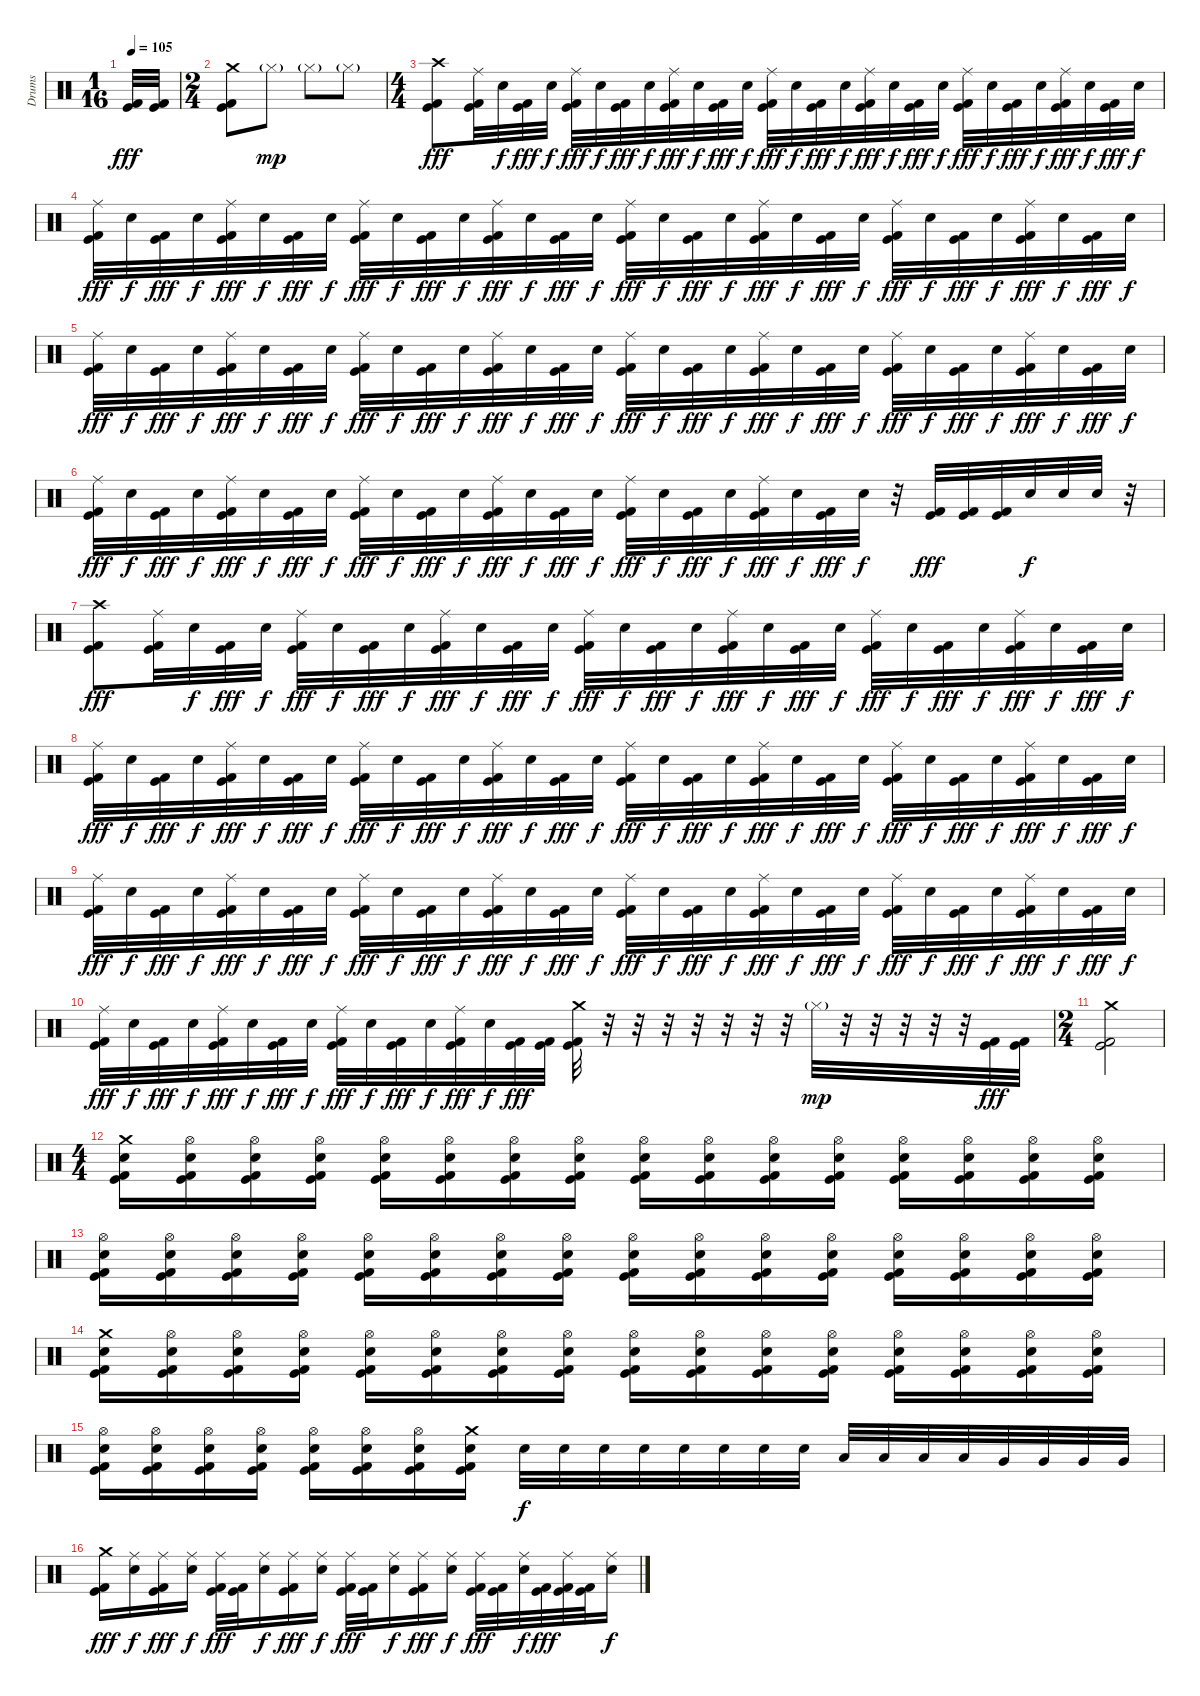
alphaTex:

\track ("Drums" "Drums") {instrument percussion}
\staff {score}
\articulation defaults
\ts (1 16)
\tempo 105
\clef neutral
\ks c
("Kick (hit)" "Kick (hit) 2").32{dy fff} ("Kick (hit)" "Kick (hit) 2").32 |
\ts (2 4)
("Crash medium (hit)" "Kick (hit)" "Kick (hit) 2").8 "Hi-Hat (closed)"{g}.8{dy mp} "Hi-Hat (closed)"{g}.8 "Hi-Hat (closed)"{g}.8 |
\ts (4 4)
("Crash high (hit)" "Kick (hit)" "Kick (hit) 2").8{dy fff} ("Ride (middle)" "Kick (hit)" "Kick (hit) 2").32 "Electric Snare (hit)".32{dy f} ("Kick (hit)" "Kick (hit) 2").32{dy fff} "Electric Snare (hit)".32{dy f} ("Ride (middle)" "Kick (hit)" "Kick (hit) 2").32{dy fff} "Electric Snare (hit)".32{dy f} ("Kick (hit)" "Kick (hit) 2").32{dy fff} "Electric Snare (hit)".32{dy f} ("Ride (middle)" "Kick (hit)" "Kick (hit) 2").32{dy fff} "Electric Snare (hit)".32{dy f} ("Kick (hit)" "Kick (hit) 2").32{dy fff} "Electric Snare (hit)".32{dy f} ("Ride (middle)" "Kick (hit)" "Kick (hit) 2").32{dy fff} "Electric Snare (hit)".32{dy f} ("Kick (hit)" "Kick (hit) 2").32{dy fff} "Electric Snare (hit)".32{dy f} ("Ride (middle)" "Kick (hit)" "Kick (hit) 2").32{dy fff} "Electric Snare (hit)".32{dy f} ("Kick (hit)" "Kick (hit) 2").32{dy fff} "Electric Snare (hit)".32{dy f} ("Ride (middle)" "Kick (hit)" "Kick (hit) 2").32{dy fff} "Electric Snare (hit)".32{dy f} ("Kick (hit)" "Kick (hit) 2").32{dy fff} "Electric Snare (hit)".32{dy f} ("Ride (middle)" "Kick (hit)" "Kick (hit) 2").32{dy fff} "Electric Snare (hit)".32{dy f} ("Kick (hit)" "Kick (hit) 2").32{dy fff} "Electric Snare (hit)".32{dy f} |
("Ride (middle)" "Kick (hit)" "Kick (hit) 2").32{dy fff} "Electric Snare (hit)".32{dy f} ("Kick (hit)" "Kick (hit) 2").32{dy fff} "Electric Snare (hit)".32{dy f} ("Ride (middle)" "Kick (hit)" "Kick (hit) 2").32{dy fff} "Electric Snare (hit)".32{dy f} ("Kick (hit)" "Kick (hit) 2").32{dy fff} "Electric Snare (hit)".32{dy f} ("Ride (middle)" "Kick (hit)" "Kick (hit) 2").32{dy fff} "Electric Snare (hit)".32{dy f} ("Kick (hit)" "Kick (hit) 2").32{dy fff} "Electric Snare (hit)".32{dy f} ("Ride (middle)" "Kick (hit)" "Kick (hit) 2").32{dy fff} "Electric Snare (hit)".32{dy f} ("Kick (hit)" "Kick (hit) 2").32{dy fff} "Electric Snare (hit)".32{dy f} ("Ride (middle)" "Kick (hit)" "Kick (hit) 2").32{dy fff} "Electric Snare (hit)".32{dy f} ("Kick (hit)" "Kick (hit) 2").32{dy fff} "Electric Snare (hit)".32{dy f} ("Ride (middle)" "Kick (hit)" "Kick (hit) 2").32{dy fff} "Electric Snare (hit)".32{dy f} ("Kick (hit)" "Kick (hit) 2").32{dy fff} "Electric Snare (hit)".32{dy f} ("Ride (middle)" "Kick (hit)" "Kick (hit) 2").32{dy fff} "Electric Snare (hit)".32{dy f} ("Kick (hit)" "Kick (hit) 2").32{dy fff} "Electric Snare (hit)".32{dy f} ("Ride (middle)" "Kick (hit)" "Kick (hit) 2").32{dy fff} "Electric Snare (hit)".32{dy f} ("Kick (hit)" "Kick (hit) 2").32{dy fff} "Electric Snare (hit)".32{dy f} |
("Ride (middle)" "Kick (hit)" "Kick (hit) 2").32{dy fff} "Electric Snare (hit)".32{dy f} ("Kick (hit)" "Kick (hit) 2").32{dy fff} "Electric Snare (hit)".32{dy f} ("Ride (middle)" "Kick (hit)" "Kick (hit) 2").32{dy fff} "Electric Snare (hit)".32{dy f} ("Kick (hit)" "Kick (hit) 2").32{dy fff} "Electric Snare (hit)".32{dy f} ("Ride (middle)" "Kick (hit)" "Kick (hit) 2").32{dy fff} "Electric Snare (hit)".32{dy f} ("Kick (hit)" "Kick (hit) 2").32{dy fff} "Electric Snare (hit)".32{dy f} ("Ride (middle)" "Kick (hit)" "Kick (hit) 2").32{dy fff} "Electric Snare (hit)".32{dy f} ("Kick (hit)" "Kick (hit) 2").32{dy fff} "Electric Snare (hit)".32{dy f} ("Ride (middle)" "Kick (hit)" "Kick (hit) 2").32{dy fff} "Electric Snare (hit)".32{dy f} ("Kick (hit)" "Kick (hit) 2").32{dy fff} "Electric Snare (hit)".32{dy f} ("Ride (middle)" "Kick (hit)" "Kick (hit) 2").32{dy fff} "Electric Snare (hit)".32{dy f} ("Kick (hit)" "Kick (hit) 2").32{dy fff} "Electric Snare (hit)".32{dy f} ("Ride (middle)" "Kick (hit)" "Kick (hit) 2").32{dy fff} "Electric Snare (hit)".32{dy f} ("Kick (hit)" "Kick (hit) 2").32{dy fff} "Electric Snare (hit)".32{dy f} ("Ride (middle)" "Kick (hit)" "Kick (hit) 2").32{dy fff} "Electric Snare (hit)".32{dy f} ("Kick (hit)" "Kick (hit) 2").32{dy fff} "Electric Snare (hit)".32{dy f} |
("Ride (middle)" "Kick (hit)" "Kick (hit) 2").32{dy fff} "Electric Snare (hit)".32{dy f} ("Kick (hit)" "Kick (hit) 2").32{dy fff} "Electric Snare (hit)".32{dy f} ("Ride (middle)" "Kick (hit)" "Kick (hit) 2").32{dy fff} "Electric Snare (hit)".32{dy f} ("Kick (hit)" "Kick (hit) 2").32{dy fff} "Electric Snare (hit)".32{dy f} ("Ride (middle)" "Kick (hit)" "Kick (hit) 2").32{dy fff} "Electric Snare (hit)".32{dy f} ("Kick (hit)" "Kick (hit) 2").32{dy fff} "Electric Snare (hit)".32{dy f} ("Ride (middle)" "Kick (hit)" "Kick (hit) 2").32{dy fff} "Electric Snare (hit)".32{dy f} ("Kick (hit)" "Kick (hit) 2").32{dy fff} "Electric Snare (hit)".32{dy f} ("Ride (middle)" "Kick (hit)" "Kick (hit) 2").32{dy fff} "Electric Snare (hit)".32{dy f} ("Kick (hit)" "Kick (hit) 2").32{dy fff} "Electric Snare (hit)".32{dy f} ("Ride (middle)" "Kick (hit)" "Kick (hit) 2").32{dy fff} "Electric Snare (hit)".32{dy f} ("Kick (hit)" "Kick (hit) 2").32{dy fff} "Electric Snare (hit)".32{dy f} r.32 ("Kick (hit)" "Kick (hit) 2").32{dy fff} ("Kick (hit)" "Kick (hit) 2").32 ("Kick (hit)" "Kick (hit) 2").32 "Electric Snare (hit)".32{dy f} "Electric Snare (hit)".32 "Electric Snare (hit)".32 r.32 |
("Crash high (hit)" "Kick (hit)" "Kick (hit) 2").8{dy fff} ("Ride (middle)" "Kick (hit)" "Kick (hit) 2").32 "Electric Snare (hit)".32{dy f} ("Kick (hit)" "Kick (hit) 2").32{dy fff} "Electric Snare (hit)".32{dy f} ("Ride (middle)" "Kick (hit)" "Kick (hit) 2").32{dy fff} "Electric Snare (hit)".32{dy f} ("Kick (hit)" "Kick (hit) 2").32{dy fff} "Electric Snare (hit)".32{dy f} ("Ride (middle)" "Kick (hit)" "Kick (hit) 2").32{dy fff} "Electric Snare (hit)".32{dy f} ("Kick (hit)" "Kick (hit) 2").32{dy fff} "Electric Snare (hit)".32{dy f} ("Ride (middle)" "Kick (hit)" "Kick (hit) 2").32{dy fff} "Electric Snare (hit)".32{dy f} ("Kick (hit)" "Kick (hit) 2").32{dy fff} "Electric Snare (hit)".32{dy f} ("Ride (middle)" "Kick (hit)" "Kick (hit) 2").32{dy fff} "Electric Snare (hit)".32{dy f} ("Kick (hit)" "Kick (hit) 2").32{dy fff} "Electric Snare (hit)".32{dy f} ("Ride (middle)" "Kick (hit)" "Kick (hit) 2").32{dy fff} "Electric Snare (hit)".32{dy f} ("Kick (hit)" "Kick (hit) 2").32{dy fff} "Electric Snare (hit)".32{dy f} ("Ride (middle)" "Kick (hit)" "Kick (hit) 2").32{dy fff} "Electric Snare (hit)".32{dy f} ("Kick (hit)" "Kick (hit) 2").32{dy fff} "Electric Snare (hit)".32{dy f} |
("Ride (middle)" "Kick (hit)" "Kick (hit) 2").32{dy fff} "Electric Snare (hit)".32{dy f} ("Kick (hit)" "Kick (hit) 2").32{dy fff} "Electric Snare (hit)".32{dy f} ("Ride (middle)" "Kick (hit)" "Kick (hit) 2").32{dy fff} "Electric Snare (hit)".32{dy f} ("Kick (hit)" "Kick (hit) 2").32{dy fff} "Electric Snare (hit)".32{dy f} ("Ride (middle)" "Kick (hit)" "Kick (hit) 2").32{dy fff} "Electric Snare (hit)".32{dy f} ("Kick (hit)" "Kick (hit) 2").32{dy fff} "Electric Snare (hit)".32{dy f} ("Ride (middle)" "Kick (hit)" "Kick (hit) 2").32{dy fff} "Electric Snare (hit)".32{dy f} ("Kick (hit)" "Kick (hit) 2").32{dy fff} "Electric Snare (hit)".32{dy f} ("Ride (middle)" "Kick (hit)" "Kick (hit) 2").32{dy fff} "Electric Snare (hit)".32{dy f} ("Kick (hit)" "Kick (hit) 2").32{dy fff} "Electric Snare (hit)".32{dy f} ("Ride (middle)" "Kick (hit)" "Kick (hit) 2").32{dy fff} "Electric Snare (hit)".32{dy f} ("Kick (hit)" "Kick (hit) 2").32{dy fff} "Electric Snare (hit)".32{dy f} ("Ride (middle)" "Kick (hit)" "Kick (hit) 2").32{dy fff} "Electric Snare (hit)".32{dy f} ("Kick (hit)" "Kick (hit) 2").32{dy fff} "Electric Snare (hit)".32{dy f} ("Ride (middle)" "Kick (hit)" "Kick (hit) 2").32{dy fff} "Electric Snare (hit)".32{dy f} ("Kick (hit)" "Kick (hit) 2").32{dy fff} "Electric Snare (hit)".32{dy f} |
("Ride (middle)" "Kick (hit)" "Kick (hit) 2").32{dy fff} "Electric Snare (hit)".32{dy f} ("Kick (hit)" "Kick (hit) 2").32{dy fff} "Electric Snare (hit)".32{dy f} ("Ride (middle)" "Kick (hit)" "Kick (hit) 2").32{dy fff} "Electric Snare (hit)".32{dy f} ("Kick (hit)" "Kick (hit) 2").32{dy fff} "Electric Snare (hit)".32{dy f} ("Ride (middle)" "Kick (hit)" "Kick (hit) 2").32{dy fff} "Electric Snare (hit)".32{dy f} ("Kick (hit)" "Kick (hit) 2").32{dy fff} "Electric Snare (hit)".32{dy f} ("Ride (middle)" "Kick (hit)" "Kick (hit) 2").32{dy fff} "Electric Snare (hit)".32{dy f} ("Kick (hit)" "Kick (hit) 2").32{dy fff} "Electric Snare (hit)".32{dy f} ("Ride (middle)" "Kick (hit)" "Kick (hit) 2").32{dy fff} "Electric Snare (hit)".32{dy f} ("Kick (hit)" "Kick (hit) 2").32{dy fff} "Electric Snare (hit)".32{dy f} ("Ride (middle)" "Kick (hit)" "Kick (hit) 2").32{dy fff} "Electric Snare (hit)".32{dy f} ("Kick (hit)" "Kick (hit) 2").32{dy fff} "Electric Snare (hit)".32{dy f} ("Ride (middle)" "Kick (hit)" "Kick (hit) 2").32{dy fff} "Electric Snare (hit)".32{dy f} ("Kick (hit)" "Kick (hit) 2").32{dy fff} "Electric Snare (hit)".32{dy f} ("Ride (middle)" "Kick (hit)" "Kick (hit) 2").32{dy fff} "Electric Snare (hit)".32{dy f} ("Kick (hit)" "Kick (hit) 2").32{dy fff} "Electric Snare (hit)".32{dy f} |
("Ride (middle)" "Kick (hit)" "Kick (hit) 2").32{dy fff} "Electric Snare (hit)".32{dy f} ("Kick (hit)" "Kick (hit) 2").32{dy fff} "Electric Snare (hit)".32{dy f} ("Ride (middle)" "Kick (hit)" "Kick (hit) 2").32{dy fff} "Electric Snare (hit)".32{dy f} ("Kick (hit)" "Kick (hit) 2").32{dy fff} "Electric Snare (hit)".32{dy f} ("Ride (middle)" "Kick (hit)" "Kick (hit) 2").32{dy fff} "Electric Snare (hit)".32{dy f} ("Kick (hit)" "Kick (hit) 2").32{dy fff} "Electric Snare (hit)".32{dy f} ("Ride (middle)" "Kick (hit)" "Kick (hit) 2").32{dy fff} "Electric Snare (hit)".32{dy f} ("Kick (hit)" "Kick (hit) 2").32{dy fff} ("Kick (hit)" "Kick (hit) 2").32 ("Crash medium (hit)" "Kick (hit)" "Kick (hit) 2").32 r.32 r.32 r.32 r.32 r.32 r.32 r.32 "Hi-Hat (closed)"{g}.32{dy mp} r.32 r.32 r.32 r.32 r.32 ("Kick (hit)" "Kick (hit) 2").32{dy fff} ("Kick (hit)" "Kick (hit) 2").32 |
\ts (2 4)
("Crash medium (hit)" "Kick (hit)" "Kick (hit) 2").2 |
\ts (4 4)
("Crash medium (hit)" "Electric Snare (hit)" "Kick (hit)" "Kick (hit) 2").16 ("Hi-Hat (open)" "Electric Snare (hit)" "Kick (hit)" "Kick (hit) 2").16 ("Hi-Hat (open)" "Electric Snare (hit)" "Kick (hit)" "Kick (hit) 2").16 ("Hi-Hat (open)" "Electric Snare (hit)" "Kick (hit)" "Kick (hit) 2").16 ("Hi-Hat (open)" "Electric Snare (hit)" "Kick (hit)" "Kick (hit) 2").16 ("Hi-Hat (open)" "Electric Snare (hit)" "Kick (hit)" "Kick (hit) 2").16 ("Hi-Hat (open)" "Electric Snare (hit)" "Kick (hit)" "Kick (hit) 2").16 ("Hi-Hat (open)" "Electric Snare (hit)" "Kick (hit)" "Kick (hit) 2").16 ("Hi-Hat (open)" "Electric Snare (hit)" "Kick (hit)" "Kick (hit) 2").16 ("Hi-Hat (open)" "Electric Snare (hit)" "Kick (hit)" "Kick (hit) 2").16 ("Hi-Hat (open)" "Electric Snare (hit)" "Kick (hit)" "Kick (hit) 2").16 ("Hi-Hat (open)" "Electric Snare (hit)" "Kick (hit)" "Kick (hit) 2").16 ("Hi-Hat (open)" "Electric Snare (hit)" "Kick (hit)" "Kick (hit) 2").16 ("Hi-Hat (open)" "Electric Snare (hit)" "Kick (hit)" "Kick (hit) 2").16 ("Hi-Hat (open)" "Electric Snare (hit)" "Kick (hit)" "Kick (hit) 2").16 ("Hi-Hat (open)" "Electric Snare (hit)" "Kick (hit)" "Kick (hit) 2").16 |
("Hi-Hat (open)" "Electric Snare (hit)" "Kick (hit)" "Kick (hit) 2").16 ("Hi-Hat (open)" "Electric Snare (hit)" "Kick (hit)" "Kick (hit) 2").16 ("Hi-Hat (open)" "Electric Snare (hit)" "Kick (hit)" "Kick (hit) 2").16 ("Hi-Hat (open)" "Electric Snare (hit)" "Kick (hit)" "Kick (hit) 2").16 ("Hi-Hat (open)" "Electric Snare (hit)" "Kick (hit)" "Kick (hit) 2").16 ("Hi-Hat (open)" "Electric Snare (hit)" "Kick (hit)" "Kick (hit) 2").16 ("Hi-Hat (open)" "Electric Snare (hit)" "Kick (hit)" "Kick (hit) 2").16 ("Hi-Hat (open)" "Electric Snare (hit)" "Kick (hit)" "Kick (hit) 2").16 ("Hi-Hat (open)" "Electric Snare (hit)" "Kick (hit)" "Kick (hit) 2").16 ("Hi-Hat (open)" "Electric Snare (hit)" "Kick (hit)" "Kick (hit) 2").16 ("Hi-Hat (open)" "Electric Snare (hit)" "Kick (hit)" "Kick (hit) 2").16 ("Hi-Hat (open)" "Electric Snare (hit)" "Kick (hit)" "Kick (hit) 2").16 ("Hi-Hat (open)" "Electric Snare (hit)" "Kick (hit)" "Kick (hit) 2").16 ("Hi-Hat (open)" "Electric Snare (hit)" "Kick (hit)" "Kick (hit) 2").16 ("Hi-Hat (open)" "Electric Snare (hit)" "Kick (hit)" "Kick (hit) 2").16 ("Hi-Hat (open)" "Electric Snare (hit)" "Kick (hit)" "Kick (hit) 2").16 |
("Crash medium (hit)" "Electric Snare (hit)" "Kick (hit)" "Kick (hit) 2").16 ("Hi-Hat (open)" "Electric Snare (hit)" "Kick (hit)" "Kick (hit) 2").16 ("Hi-Hat (open)" "Electric Snare (hit)" "Kick (hit)" "Kick (hit) 2").16 ("Hi-Hat (open)" "Electric Snare (hit)" "Kick (hit)" "Kick (hit) 2").16 ("Hi-Hat (open)" "Electric Snare (hit)" "Kick (hit)" "Kick (hit) 2").16 ("Hi-Hat (open)" "Electric Snare (hit)" "Kick (hit)" "Kick (hit) 2").16 ("Hi-Hat (open)" "Electric Snare (hit)" "Kick (hit)" "Kick (hit) 2").16 ("Hi-Hat (open)" "Electric Snare (hit)" "Kick (hit)" "Kick (hit) 2").16 ("Hi-Hat (open)" "Electric Snare (hit)" "Kick (hit)" "Kick (hit) 2").16 ("Hi-Hat (open)" "Electric Snare (hit)" "Kick (hit)" "Kick (hit) 2").16 ("Hi-Hat (open)" "Electric Snare (hit)" "Kick (hit)" "Kick (hit) 2").16 ("Hi-Hat (open)" "Electric Snare (hit)" "Kick (hit)" "Kick (hit) 2").16 ("Hi-Hat (open)" "Electric Snare (hit)" "Kick (hit)" "Kick (hit) 2").16 ("Hi-Hat (open)" "Electric Snare (hit)" "Kick (hit)" "Kick (hit) 2").16 ("Hi-Hat (open)" "Electric Snare (hit)" "Kick (hit)" "Kick (hit) 2").16 ("Hi-Hat (open)" "Electric Snare (hit)" "Kick (hit)" "Kick (hit) 2").16 |
("Hi-Hat (open)" "Electric Snare (hit)" "Kick (hit)" "Kick (hit) 2").16 ("Hi-Hat (open)" "Electric Snare (hit)" "Kick (hit)" "Kick (hit) 2").16 ("Hi-Hat (open)" "Electric Snare (hit)" "Kick (hit)" "Kick (hit) 2").16 ("Hi-Hat (open)" "Electric Snare (hit)" "Kick (hit)" "Kick (hit) 2").16 ("Hi-Hat (open)" "Electric Snare (hit)" "Kick (hit)" "Kick (hit) 2").16 ("Hi-Hat (open)" "Electric Snare (hit)" "Kick (hit)" "Kick (hit) 2").16 ("Hi-Hat (open)" "Electric Snare (hit)" "Kick (hit)" "Kick (hit) 2").16 ("Crash medium (hit)" "Electric Snare (hit)" "Kick (hit)" "Kick (hit) 2").16 "Electric Snare (hit)".32{dy f} "Electric Snare (hit)".32 "Electric Snare (hit)".32 "Electric Snare (hit)".32 "Electric Snare (hit)".32 "Electric Snare (hit)".32 "Electric Snare (hit)".32 "Electric Snare (hit)".32 "Low Tom (hit)".32 "Low Tom (hit)".32 "Low Tom (hit)".32 "Low Tom (hit)".32 "Very Low Tom (hit)".32 "Very Low Tom (hit)".32 "Very Low Tom (hit)".32 "Very Low Tom (hit)".32 |
("Crash medium (hit)" "Kick (hit)" "Kick (hit) 2").16{dy fff} ("Ride (middle)" "Electric Snare (hit)").16{dy f} ("Ride (middle)" "Kick (hit)" "Kick (hit) 2").16{dy fff} ("Ride (middle)" "Electric Snare (hit)").16{dy f} ("Ride (middle)" "Kick (hit)" "Kick (hit) 2").32{dy fff} ("Kick (hit)" "Kick (hit) 2").32 ("Ride (middle)" "Electric Snare (hit)").16{dy f} ("Ride (middle)" "Kick (hit)" "Kick (hit) 2").16{dy fff} ("Ride (middle)" "Electric Snare (hit)").16{dy f} ("Ride (middle)" "Kick (hit)" "Kick (hit) 2").32{dy fff} ("Kick (hit)" "Kick (hit) 2").32 ("Ride (middle)" "Electric Snare (hit)").16{dy f} ("Ride (middle)" "Kick (hit)" "Kick (hit) 2").16{dy fff} ("Ride (middle)" "Electric Snare (hit)").16{dy f} ("Ride (middle)" "Kick (hit)" "Kick (hit) 2").32{dy fff} ("Kick (hit)" "Kick (hit) 2").32 ("Ride (middle)" "Electric Snare (hit)").32{dy f} ("Kick (hit)" "Kick (hit) 2").32{dy fff} ("Ride (middle)" "Kick (hit)" "Kick (hit) 2").32 ("Kick (hit)" "Kick (hit) 2").32 ("Ride (middle)" "Electric Snare (hit)").16{dy f}
